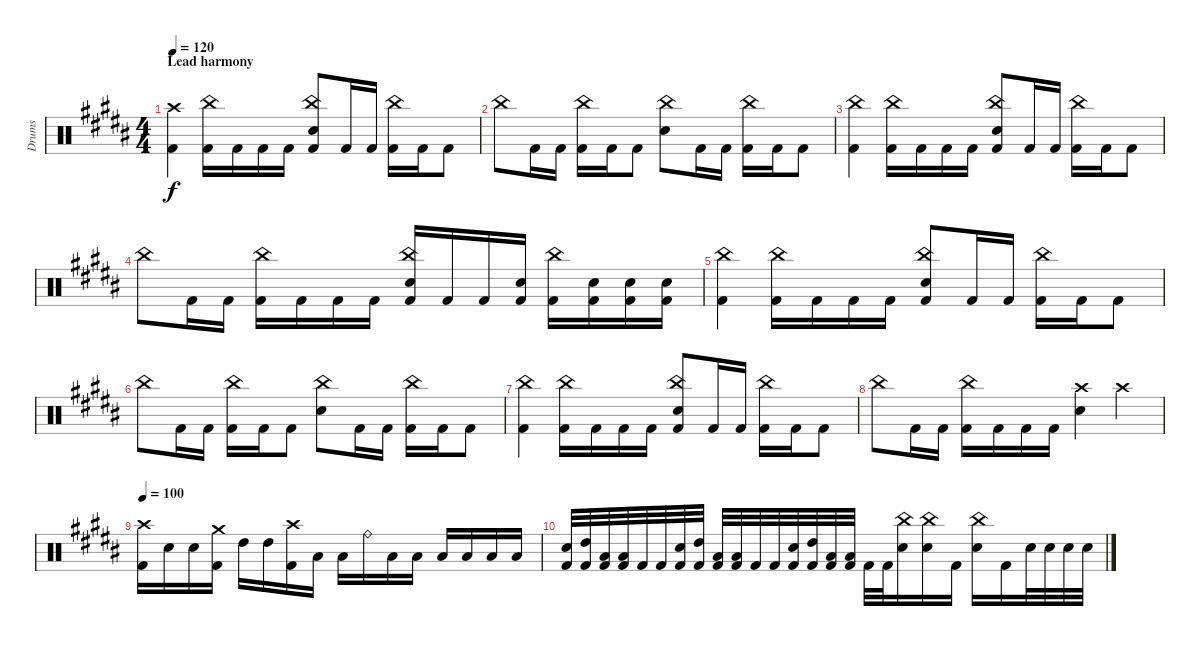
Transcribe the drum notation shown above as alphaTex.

\track ("Drums" "Drums") {instrument percussion}
\staff {score}
\articulation defaults
\ts (4 4)
\section ("" "Lead harmony")
\tempo 120
\clef neutral
\ks b
("Crash high (hit)" "Kick (hit) 2").4{dy f} ("China (hit)" "Kick (hit) 2").16 "Kick (hit) 2".16 "Kick (hit) 2".16 "Kick (hit) 2".16 ("China (hit)" "Electric Snare (hit)" "Kick (hit) 2").8 "Kick (hit) 2".16 "Kick (hit) 2".16 ("China (hit)" "Kick (hit) 2").16 "Kick (hit) 2".16 "Kick (hit) 2".8 |
"China (hit)".8 "Kick (hit) 2".16 "Kick (hit) 2".16 ("China (hit)" "Kick (hit) 2").16 "Kick (hit) 2".16 "Kick (hit) 2".8 ("China (hit)" "Electric Snare (hit)").8 "Kick (hit) 2".16 "Kick (hit) 2".16 ("China (hit)" "Kick (hit) 2").16 "Kick (hit) 2".16 "Kick (hit) 2".8 |
("China (hit)" "Kick (hit) 2").4 ("China (hit)" "Kick (hit) 2").16 "Kick (hit) 2".16 "Kick (hit) 2".16 "Kick (hit) 2".16 ("China (hit)" "Electric Snare (hit)" "Kick (hit) 2").8 "Kick (hit) 2".16 "Kick (hit) 2".16 ("China (hit)" "Kick (hit) 2").16 "Kick (hit) 2".16 "Kick (hit) 2".8 |
"China (hit)".8 "Kick (hit) 2".16 "Kick (hit) 2".16 ("China (hit)" "Kick (hit) 2").16 "Kick (hit) 2".16 "Kick (hit) 2".16 "Kick (hit) 2".16 ("China (hit)" "Electric Snare (hit)" "Kick (hit) 2").16 "Kick (hit) 2".16 "Kick (hit) 2".16 ("Electric Snare (hit)" "Kick (hit) 2").16 ("China (hit)" "Kick (hit) 2").16 ("Electric Snare (hit)" "Kick (hit) 2").16 ("Electric Snare (hit)" "Kick (hit) 2").16 ("Electric Snare (hit)" "Kick (hit) 2").16 |
("China (hit)" "Kick (hit) 2").4 ("China (hit)" "Kick (hit) 2").16 "Kick (hit) 2".16 "Kick (hit) 2".16 "Kick (hit) 2".16 ("China (hit)" "Electric Snare (hit)" "Kick (hit) 2").8 "Kick (hit) 2".16 "Kick (hit) 2".16 ("China (hit)" "Kick (hit) 2").16 "Kick (hit) 2".16 "Kick (hit) 2".8 |
"China (hit)".8 "Kick (hit) 2".16 "Kick (hit) 2".16 ("China (hit)" "Kick (hit) 2").16 "Kick (hit) 2".16 "Kick (hit) 2".8 ("China (hit)" "Electric Snare (hit)").8 "Kick (hit) 2".16 "Kick (hit) 2".16 ("China (hit)" "Kick (hit) 2").16 "Kick (hit) 2".16 "Kick (hit) 2".8 |
("China (hit)" "Kick (hit) 2").4 ("China (hit)" "Kick (hit) 2").16 "Kick (hit) 2".16 "Kick (hit) 2".16 "Kick (hit) 2".16 ("China (hit)" "Electric Snare (hit)" "Kick (hit) 2").8 "Kick (hit) 2".16 "Kick (hit) 2".16 ("China (hit)" "Kick (hit) 2").16 "Kick (hit) 2".16 "Kick (hit) 2".8 |
"China (hit)".8 "Kick (hit) 2".16 "Kick (hit) 2".16 ("China (hit)" "Kick (hit) 2").16 "Kick (hit) 2".16 "Kick (hit) 2".16 "Kick (hit) 2".16 ("Crash high (hit)" "Electric Snare (hit)").4 "Crash high (hit)".4 |
\tempo 100
("Crash high (hit)" "Kick (hit) 2").16 "Electric Snare (hit)".16 "Electric Snare (hit)".16 ("Crash medium (hit)" "Kick (hit) 2").16 "High Tom (hit)".16 "High Tom (hit)".16 ("Crash high (hit)" "Kick (hit) 2").16 "Low Tom (hit)".16 "Low Tom (hit)".16 "Ride (bell)".16 "Low Tom (hit)".16 "Low Floor Tom (hit)".16 "Low Floor Tom (hit)".16 "Low Floor Tom (hit)".16 "Low Floor Tom (hit)".16 "Low Tom (hit)".16 |
("Electric Snare (hit)" "Kick (hit) 2").32 ("High Tom (hit)" "Kick (hit) 2").32 ("Low Tom (hit)" "Kick (hit) 2").32 ("Low Tom (hit)" "Kick (hit) 2").32 "Kick (hit) 2".32 "Kick (hit) 2".32 ("Electric Snare (hit)" "Kick (hit) 2").32 ("High Tom (hit)" "Kick (hit) 2").32 ("Low Tom (hit)" "Kick (hit) 2").32 ("Low Tom (hit)" "Kick (hit) 2").32 "Kick (hit) 2".32 "Kick (hit) 2".32 ("Electric Snare (hit)" "Kick (hit) 2").32 ("High Tom (hit)" "Kick (hit) 2").32 ("Low Tom (hit)" "Kick (hit) 2").32 ("Low Tom (hit)" "Kick (hit) 2").32 "Kick (hit) 2".32 "Kick (hit) 2".32 ("China (hit)" "Electric Snare (hit)").16 ("China (hit)" "Electric Snare (hit)").16 "Kick (hit) 2".16 ("China (hit)" "Electric Snare (hit)").16 "Kick (hit) 2".16 "Electric Snare (hit)".32 "Electric Snare (hit)".32 "Electric Snare (hit)".32 "Electric Snare (hit)".32
